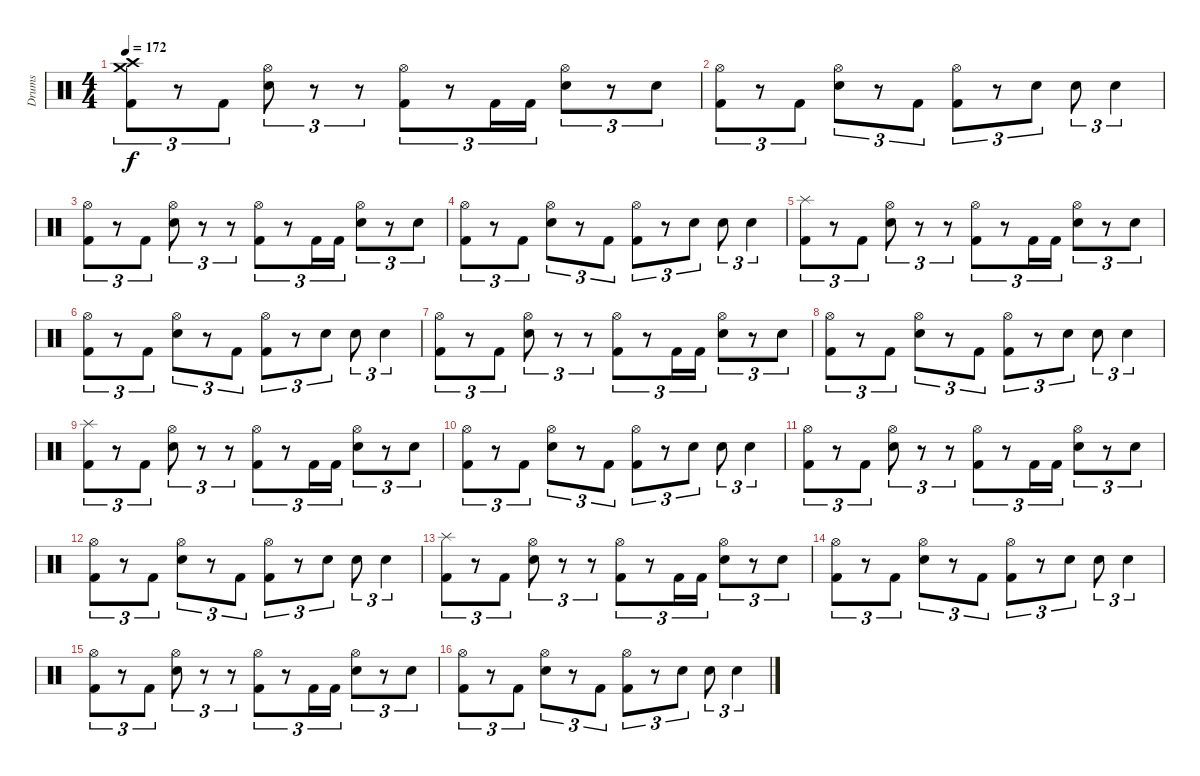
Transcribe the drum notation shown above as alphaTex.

\track ("Drums" "Drums") {instrument percussion}
\staff {score}
\articulation defaults
\ts (4 4)
\tempo 172
\clef neutral
\ks c
("Crash medium (hit)" "Crash high (hit)" "Kick (hit) 2").8{tu (3 2) dy f} r.8{tu (3 2)} "Kick (hit) 2".8{tu (3 2)} ("Hi-Hat (open)" "Snare (hit) 2").8{tu (3 2)} r.8{tu (3 2)} r.8{tu (3 2)} ("Hi-Hat (open)" "Kick (hit) 2").8{tu (3 2)} r.8{tu (3 2)} "Kick (hit) 2".16{tu (3 2)} "Kick (hit) 2".16{tu (3 2)} ("Hi-Hat (open)" "Snare (hit) 2").8{tu (3 2)} r.8{tu (3 2)} "Snare (hit) 2".8{tu (3 2)} |
("Hi-Hat (open)" "Kick (hit) 2").8{tu (3 2)} r.8{tu (3 2)} "Kick (hit) 2".8{tu (3 2)} ("Hi-Hat (open)" "Snare (hit) 2").8{tu (3 2)} r.8{tu (3 2)} "Kick (hit) 2".8{tu (3 2)} ("Hi-Hat (open)" "Kick (hit) 2").8{tu (3 2)} r.8{tu (3 2)} "Snare (hit) 2".8{tu (3 2)} "Snare (hit) 2".8{tu (3 2)} "Snare (hit) 2".4{tu (3 2)} |
("Hi-Hat (open)" "Kick (hit) 2").8{tu (3 2)} r.8{tu (3 2)} "Kick (hit) 2".8{tu (3 2)} ("Hi-Hat (open)" "Snare (hit) 2").8{tu (3 2)} r.8{tu (3 2)} r.8{tu (3 2)} ("Hi-Hat (open)" "Kick (hit) 2").8{tu (3 2)} r.8{tu (3 2)} "Kick (hit) 2".16{tu (3 2)} "Kick (hit) 2".16{tu (3 2)} ("Hi-Hat (open)" "Snare (hit) 2").8{tu (3 2)} r.8{tu (3 2)} "Snare (hit) 2".8{tu (3 2)} |
("Hi-Hat (open)" "Kick (hit) 2").8{tu (3 2)} r.8{tu (3 2)} "Kick (hit) 2".8{tu (3 2)} ("Hi-Hat (open)" "Snare (hit) 2").8{tu (3 2)} r.8{tu (3 2)} "Kick (hit) 2".8{tu (3 2)} ("Hi-Hat (open)" "Kick (hit) 2").8{tu (3 2)} r.8{tu (3 2)} "Snare (hit) 2".8{tu (3 2)} "Snare (hit) 2".8{tu (3 2)} "Snare (hit) 2".4{tu (3 2)} |
("Splash (hit)" "Kick (hit) 2").8{tu (3 2)} r.8{tu (3 2)} "Kick (hit) 2".8{tu (3 2)} ("Hi-Hat (open)" "Snare (hit) 2").8{tu (3 2)} r.8{tu (3 2)} r.8{tu (3 2)} ("Hi-Hat (open)" "Kick (hit) 2").8{tu (3 2)} r.8{tu (3 2)} "Kick (hit) 2".16{tu (3 2)} "Kick (hit) 2".16{tu (3 2)} ("Hi-Hat (open)" "Snare (hit) 2").8{tu (3 2)} r.8{tu (3 2)} "Snare (hit) 2".8{tu (3 2)} |
("Hi-Hat (open)" "Kick (hit) 2").8{tu (3 2)} r.8{tu (3 2)} "Kick (hit) 2".8{tu (3 2)} ("Hi-Hat (open)" "Snare (hit) 2").8{tu (3 2)} r.8{tu (3 2)} "Kick (hit) 2".8{tu (3 2)} ("Hi-Hat (open)" "Kick (hit) 2").8{tu (3 2)} r.8{tu (3 2)} "Snare (hit) 2".8{tu (3 2)} "Snare (hit) 2".8{tu (3 2)} "Snare (hit) 2".4{tu (3 2)} |
("Hi-Hat (open)" "Kick (hit) 2").8{tu (3 2)} r.8{tu (3 2)} "Kick (hit) 2".8{tu (3 2)} ("Hi-Hat (open)" "Snare (hit) 2").8{tu (3 2)} r.8{tu (3 2)} r.8{tu (3 2)} ("Hi-Hat (open)" "Kick (hit) 2").8{tu (3 2)} r.8{tu (3 2)} "Kick (hit) 2".16{tu (3 2)} "Kick (hit) 2".16{tu (3 2)} ("Hi-Hat (open)" "Snare (hit) 2").8{tu (3 2)} r.8{tu (3 2)} "Snare (hit) 2".8{tu (3 2)} |
("Hi-Hat (open)" "Kick (hit) 2").8{tu (3 2)} r.8{tu (3 2)} "Kick (hit) 2".8{tu (3 2)} ("Hi-Hat (open)" "Snare (hit) 2").8{tu (3 2)} r.8{tu (3 2)} "Kick (hit) 2".8{tu (3 2)} ("Hi-Hat (open)" "Kick (hit) 2").8{tu (3 2)} r.8{tu (3 2)} "Snare (hit) 2".8{tu (3 2)} "Snare (hit) 2".8{tu (3 2)} "Snare (hit) 2".4{tu (3 2)} |
("Splash (hit)" "Kick (hit) 2").8{tu (3 2)} r.8{tu (3 2)} "Kick (hit) 2".8{tu (3 2)} ("Hi-Hat (open)" "Snare (hit) 2").8{tu (3 2)} r.8{tu (3 2)} r.8{tu (3 2)} ("Hi-Hat (open)" "Kick (hit) 2").8{tu (3 2)} r.8{tu (3 2)} "Kick (hit) 2".16{tu (3 2)} "Kick (hit) 2".16{tu (3 2)} ("Hi-Hat (open)" "Snare (hit) 2").8{tu (3 2)} r.8{tu (3 2)} "Snare (hit) 2".8{tu (3 2)} |
("Hi-Hat (open)" "Kick (hit) 2").8{tu (3 2)} r.8{tu (3 2)} "Kick (hit) 2".8{tu (3 2)} ("Hi-Hat (open)" "Snare (hit) 2").8{tu (3 2)} r.8{tu (3 2)} "Kick (hit) 2".8{tu (3 2)} ("Hi-Hat (open)" "Kick (hit) 2").8{tu (3 2)} r.8{tu (3 2)} "Snare (hit) 2".8{tu (3 2)} "Snare (hit) 2".8{tu (3 2)} "Snare (hit) 2".4{tu (3 2)} |
("Hi-Hat (open)" "Kick (hit) 2").8{tu (3 2)} r.8{tu (3 2)} "Kick (hit) 2".8{tu (3 2)} ("Hi-Hat (open)" "Snare (hit) 2").8{tu (3 2)} r.8{tu (3 2)} r.8{tu (3 2)} ("Hi-Hat (open)" "Kick (hit) 2").8{tu (3 2)} r.8{tu (3 2)} "Kick (hit) 2".16{tu (3 2)} "Kick (hit) 2".16{tu (3 2)} ("Hi-Hat (open)" "Snare (hit) 2").8{tu (3 2)} r.8{tu (3 2)} "Snare (hit) 2".8{tu (3 2)} |
("Hi-Hat (open)" "Kick (hit) 2").8{tu (3 2)} r.8{tu (3 2)} "Kick (hit) 2".8{tu (3 2)} ("Hi-Hat (open)" "Snare (hit) 2").8{tu (3 2)} r.8{tu (3 2)} "Kick (hit) 2".8{tu (3 2)} ("Hi-Hat (open)" "Kick (hit) 2").8{tu (3 2)} r.8{tu (3 2)} "Snare (hit) 2".8{tu (3 2)} "Snare (hit) 2".8{tu (3 2)} "Snare (hit) 2".4{tu (3 2)} |
("Splash (hit)" "Kick (hit) 2").8{tu (3 2)} r.8{tu (3 2)} "Kick (hit) 2".8{tu (3 2)} ("Hi-Hat (open)" "Snare (hit) 2").8{tu (3 2)} r.8{tu (3 2)} r.8{tu (3 2)} ("Hi-Hat (open)" "Kick (hit) 2").8{tu (3 2)} r.8{tu (3 2)} "Kick (hit) 2".16{tu (3 2)} "Kick (hit) 2".16{tu (3 2)} ("Hi-Hat (open)" "Snare (hit) 2").8{tu (3 2)} r.8{tu (3 2)} "Snare (hit) 2".8{tu (3 2)} |
("Hi-Hat (open)" "Kick (hit) 2").8{tu (3 2)} r.8{tu (3 2)} "Kick (hit) 2".8{tu (3 2)} ("Hi-Hat (open)" "Snare (hit) 2").8{tu (3 2)} r.8{tu (3 2)} "Kick (hit) 2".8{tu (3 2)} ("Hi-Hat (open)" "Kick (hit) 2").8{tu (3 2)} r.8{tu (3 2)} "Snare (hit) 2".8{tu (3 2)} "Snare (hit) 2".8{tu (3 2)} "Snare (hit) 2".4{tu (3 2)} |
("Hi-Hat (open)" "Kick (hit) 2").8{tu (3 2)} r.8{tu (3 2)} "Kick (hit) 2".8{tu (3 2)} ("Hi-Hat (open)" "Snare (hit) 2").8{tu (3 2)} r.8{tu (3 2)} r.8{tu (3 2)} ("Hi-Hat (open)" "Kick (hit) 2").8{tu (3 2)} r.8{tu (3 2)} "Kick (hit) 2".16{tu (3 2)} "Kick (hit) 2".16{tu (3 2)} ("Hi-Hat (open)" "Snare (hit) 2").8{tu (3 2)} r.8{tu (3 2)} "Snare (hit) 2".8{tu (3 2)} |
("Hi-Hat (open)" "Kick (hit) 2").8{tu (3 2)} r.8{tu (3 2)} "Kick (hit) 2".8{tu (3 2)} ("Hi-Hat (open)" "Snare (hit) 2").8{tu (3 2)} r.8{tu (3 2)} "Kick (hit) 2".8{tu (3 2)} ("Hi-Hat (open)" "Kick (hit) 2").8{tu (3 2)} r.8{tu (3 2)} "Snare (hit) 2".8{tu (3 2)} "Snare (hit) 2".8{tu (3 2)} "Snare (hit) 2".4{tu (3 2)}
